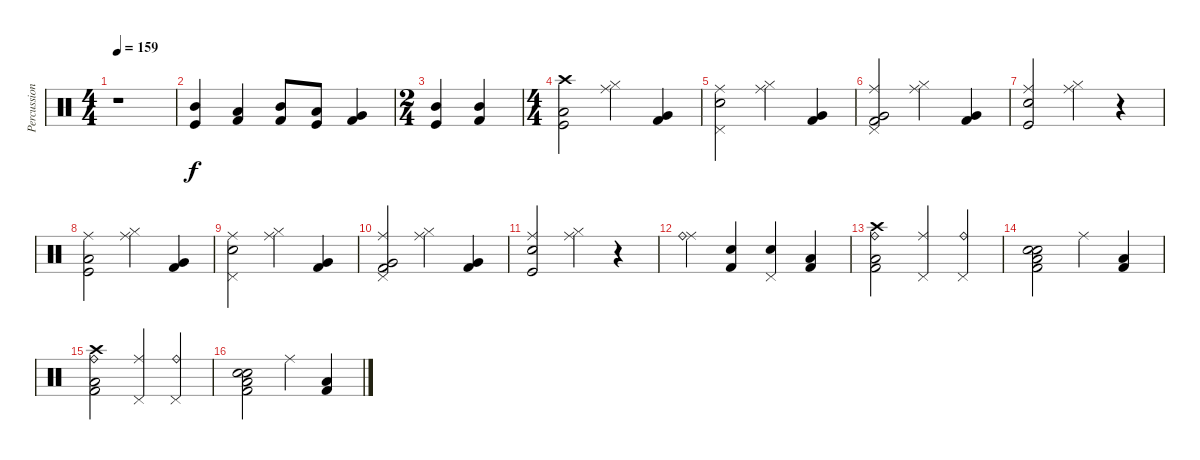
\track ("Percussions" "Percussion") {instrument percussion}
\staff {score}
\articulation defaults
\ts (4 4)
\tempo 159
\clef neutral
\ks c
r.1{dy f} |
("Mid Tom (hit)" "Kick (hit)").4 ("Low Tom (hit)" "Kick (hit) 2").4 ("Mid Tom (hit)" "Kick (hit) 2").8 ("Low Tom (hit)" "Kick (hit)").8 ("Very Low Tom (hit)" "Kick (hit) 2").4 |
\ts (2 4)
("Mid Tom (hit)" "Kick (hit)").4 ("Mid Tom (hit)" "Kick (hit) 2").4 |
\ts (4 4)
("Crash high (hit)" "Low Tom (hit)" "Kick (hit)").2 ("Hi-Hat (closed)" "Ride (middle)").4 ("Very Low Tom (hit)" "Kick (hit) 2").4 |
("Pedal Hi-Hat (hit)" "Ride (middle)" "Electric Snare (hit)").2 ("Hi-Hat (closed)" "Ride (middle)").4 ("Very Low Tom (hit)" "Kick (hit) 2").4 |
("Pedal Hi-Hat (hit)" "Ride (middle)" "Very Low Tom (hit)" "Kick (hit) 2").2 ("Hi-Hat (closed)" "Ride (middle)").4 ("Very Low Tom (hit)" "Kick (hit) 2").4 |
("Ride (middle)" "Electric Snare (hit)" "Kick (hit)").2 ("Hi-Hat (closed)" "Ride (middle)").4 r.4 |
("Ride (middle)" "Low Tom (hit)" "Kick (hit)").2 ("Hi-Hat (closed)" "Ride (middle)").4 ("Very Low Tom (hit)" "Kick (hit) 2").4 |
("Pedal Hi-Hat (hit)" "Ride (middle)" "Electric Snare (hit)").2 ("Hi-Hat (closed)" "Ride (middle)").4 ("Very Low Tom (hit)" "Kick (hit) 2").4 |
("Pedal Hi-Hat (hit)" "Ride (middle)" "Very Low Tom (hit)" "Kick (hit) 2").2 ("Hi-Hat (closed)" "Ride (middle)").4 ("Very Low Tom (hit)" "Kick (hit) 2").4 |
("Ride (middle)" "Electric Snare (hit)" "Kick (hit)").2 ("Hi-Hat (closed)" "Ride (middle)").4 r.4 |
("Ride (middle)" "Ride (bell)").4 ("Kick (hit) 2" "Electric Snare (hit)").4 ("Pedal Hi-Hat (hit)" "Snare (hit) 2").4 ("Low Tom (hit)" "Kick (hit) 2").4 |
("Ride (bell)" "Crash high (hit)" "Low Tom (hit)" "Kick (hit) 2").2 ("Ride (middle)" "Pedal Hi-Hat (hit)").4 ("Pedal Hi-Hat (hit)" "Ride (bell)").4 |
("Kick (hit) 2" "Low Tom (hit)" "Snare (hit) 2" "Electric Snare (hit)").2 "Ride (middle)".4 ("Low Tom (hit)" "Kick (hit) 2").4 |
("Ride (bell)" "Crash high (hit)" "Low Tom (hit)" "Kick (hit) 2").2 ("Ride (middle)" "Pedal Hi-Hat (hit)").4 ("Pedal Hi-Hat (hit)" "Ride (bell)").4 |
("Kick (hit) 2" "Low Tom (hit)" "Snare (hit) 2" "Electric Snare (hit)").2 "Ride (middle)".4 ("Low Tom (hit)" "Kick (hit) 2").4
